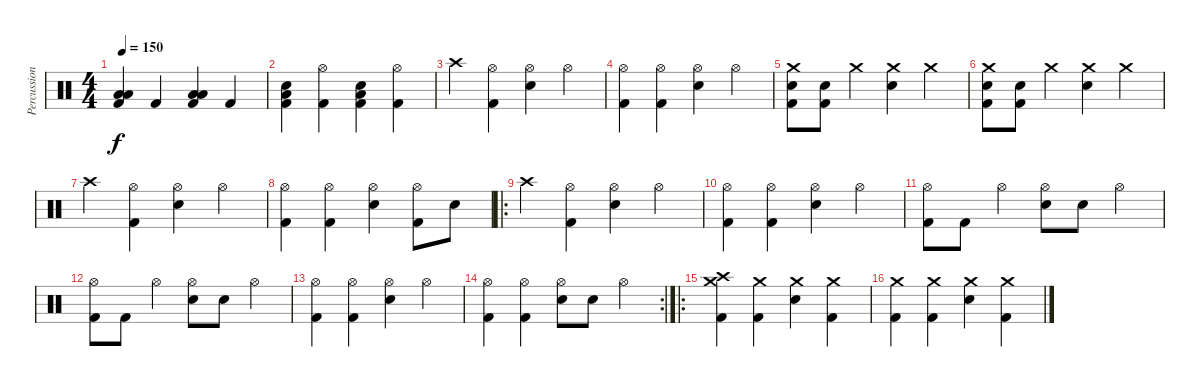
\track ("Percussioni" "Percussion") {instrument percussion}
\staff {score}
\articulation defaults
\ts (4 4)
\tempo 150
\clef neutral
\ks c
("Low Tom (hit)" "Kick (hit) 2" "Low Floor Tom (hit)").4{dy f} "Kick (hit) 2".4 ("Low Tom (hit)" "Kick (hit) 2" "Low Floor Tom (hit)").4 "Kick (hit) 2".4 |
("Low Tom (hit)" "Kick (hit) 2" "Snare (hit) 2").4 ("Hi-Hat (open)" "Kick (hit) 2").4 ("Low Tom (hit)" "Kick (hit) 2" "Snare (hit) 2").4 ("Hi-Hat (open)" "Kick (hit) 2").4 |
"Crash high (hit)".4 ("Hi-Hat (open)" "Kick (hit) 2").4 ("Hi-Hat (open)" "Snare (hit) 2").4 "Hi-Hat (open)".4 |
("Hi-Hat (open)" "Kick (hit) 2").4 ("Hi-Hat (open)" "Kick (hit) 2").4 ("Hi-Hat (open)" "Snare (hit) 2").4 "Hi-Hat (open)".4 |
("Crash medium (hit)" "Kick (hit) 2" "Snare (hit) 2").8 ("Kick (hit) 2" "Snare (hit) 2").8 "Crash medium (hit)".4 ("Crash medium (hit)" "Snare (hit) 2").4 "Crash medium (hit)".4 |
("Crash medium (hit)" "Kick (hit) 2" "Snare (hit) 2").8 ("Kick (hit) 2" "Snare (hit) 2").8 "Crash medium (hit)".4 ("Crash medium (hit)" "Snare (hit) 2").4 "Crash medium (hit)".4 |
"Crash high (hit)".4 ("Hi-Hat (open)" "Kick (hit) 2").4 ("Hi-Hat (open)" "Snare (hit) 2").4 "Hi-Hat (open)".4 |
("Hi-Hat (open)" "Kick (hit) 2").4 ("Hi-Hat (open)" "Kick (hit) 2").4 ("Hi-Hat (open)" "Snare (hit) 2").4 ("Hi-Hat (open)" "Kick (hit) 2").8 "Snare (hit) 2".8 |
\ro "Crash high (hit)".4
("Hi-Hat (open)" "Kick (hit) 2").4 ("Hi-Hat (open)" "Snare (hit) 2").4 "Hi-Hat (open)".4 |
("Hi-Hat (open)" "Kick (hit) 2").4 ("Hi-Hat (open)" "Kick (hit) 2").4 ("Hi-Hat (open)" "Snare (hit) 2").4 "Hi-Hat (open)".4 |
("Hi-Hat (open)" "Kick (hit) 2").8 "Kick (hit) 2".8 "Hi-Hat (open)".4 ("Hi-Hat (open)" "Snare (hit) 2").8 "Snare (hit) 2".8 "Hi-Hat (open)".4 |
("Hi-Hat (open)" "Kick (hit) 2").8 "Kick (hit) 2".8 "Hi-Hat (open)".4 ("Hi-Hat (open)" "Snare (hit) 2").8 "Snare (hit) 2".8 "Hi-Hat (open)".4 |
("Hi-Hat (open)" "Kick (hit) 2").4 ("Hi-Hat (open)" "Kick (hit) 2").4 ("Hi-Hat (open)" "Snare (hit) 2").4 "Hi-Hat (open)".4 |
\rc 2
("Hi-Hat (open)" "Kick (hit) 2").4 ("Hi-Hat (open)" "Kick (hit) 2").4 ("Hi-Hat (open)" "Snare (hit) 2").8 "Snare (hit) 2".8 "Hi-Hat (open)".4 |
\ro
("Crash high (hit)" "Crash medium (hit)" "Kick (hit) 2").4 ("Crash medium (hit)" "Kick (hit) 2").4 ("Crash medium (hit)" "Snare (hit) 2").4 ("Crash medium (hit)" "Kick (hit) 2").4 |
("Crash medium (hit)" "Kick (hit) 2").4 ("Crash medium (hit)" "Kick (hit) 2").4 ("Crash medium (hit)" "Snare (hit) 2").4 ("Crash medium (hit)" "Kick (hit) 2").4
